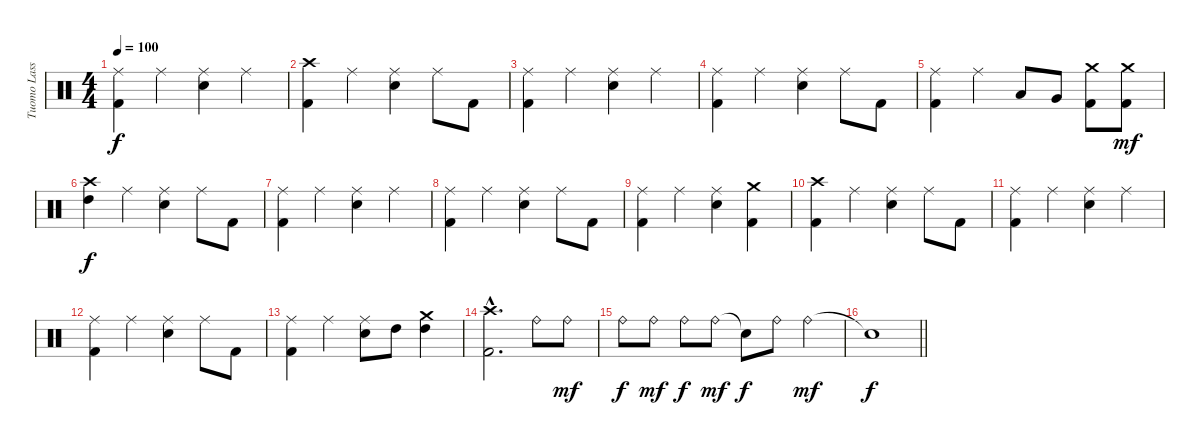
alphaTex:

\track ("Tuomo Lassila" "Tuomo Lass") {instrument percussion}
\staff {score}
\articulation defaults
\ts (4 4)
\tempo 100
\clef neutral
\ks c
("Ride (middle)" "Kick (hit) 2").4{dy f} "Ride (middle)".4 ("Ride (middle)" "Electric Snare (hit)").4 "Ride (middle)".4 |
("Crash high (hit)" "Kick (hit) 2").4 "Ride (middle)".4 ("Ride (middle)" "Electric Snare (hit)").4 "Ride (middle)".8 "Kick (hit) 2".8 |
("Ride (middle)" "Kick (hit) 2").4 "Ride (middle)".4 ("Ride (middle)" "Electric Snare (hit)").4 "Ride (middle)".4 |
("Ride (middle)" "Kick (hit) 2").4 "Ride (middle)".4 ("Ride (middle)" "Electric Snare (hit)").4 "Ride (middle)".8 "Kick (hit) 2".8 |
("Ride (middle)" "Kick (hit) 2").4 "Ride (middle)".4 "Low Tom (hit)".8 "Very Low Tom (hit)".8 ("Crash medium (hit)" "Kick (hit) 2").8 ("Crash medium (hit)" "Kick (hit) 2").8{dy mf} |
("Crash high (hit)" "High Tom (hit)").4{dy f} "Ride (middle)".4 ("Ride (middle)" "Electric Snare (hit)").4 "Ride (middle)".8 "Kick (hit) 2".8 |
("Ride (middle)" "Kick (hit) 2").4 "Ride (middle)".4 ("Ride (middle)" "Electric Snare (hit)").4 "Ride (middle)".4 |
("Ride (middle)" "Kick (hit) 2").4 "Ride (middle)".4 ("Ride (middle)" "Electric Snare (hit)").4 "Ride (middle)".8 "Kick (hit) 2".8 |
("Ride (middle)" "Kick (hit) 2").4 "Ride (middle)".4 ("Ride (middle)" "Electric Snare (hit)").4 ("Crash medium (hit)" "Kick (hit) 2").4 |
("Crash high (hit)" "Kick (hit) 2").4 "Ride (middle)".4 ("Ride (middle)" "Electric Snare (hit)").4 "Ride (middle)".8 "Kick (hit) 2".8 |
("Ride (middle)" "Kick (hit) 2").4 "Ride (middle)".4 ("Ride (middle)" "Electric Snare (hit)").4 "Ride (middle)".4 |
("Ride (middle)" "Kick (hit) 2").4 "Ride (middle)".4 ("Ride (middle)" "Electric Snare (hit)").4 "Ride (middle)".8 "Kick (hit) 2".8 |
("Ride (middle)" "Kick (hit) 2").4 "Ride (middle)".4 ("Ride (middle)" "Electric Snare (hit)").8 "High Tom (hit)".8 ("Crash medium (hit)" "High Tom (hit)").4 |
("Crash high (hit)"{hac} "Kick (hit) 2"{hac}).2{d} "Ride (bell)".8 "Ride (bell)".8{dy mf} |
"Ride (bell)".8{dy f} "Ride (bell)".8{dy mf} "Ride (bell)".8{dy f} "Ride (bell)".8{dy mf} "Snare (hit)"{t}.8{dy f} "Ride (bell)".8 "Ride (bell)".4{dy mf} |
\barLineRight lightlight "Snare (hit)"{t}.1{dy f}
